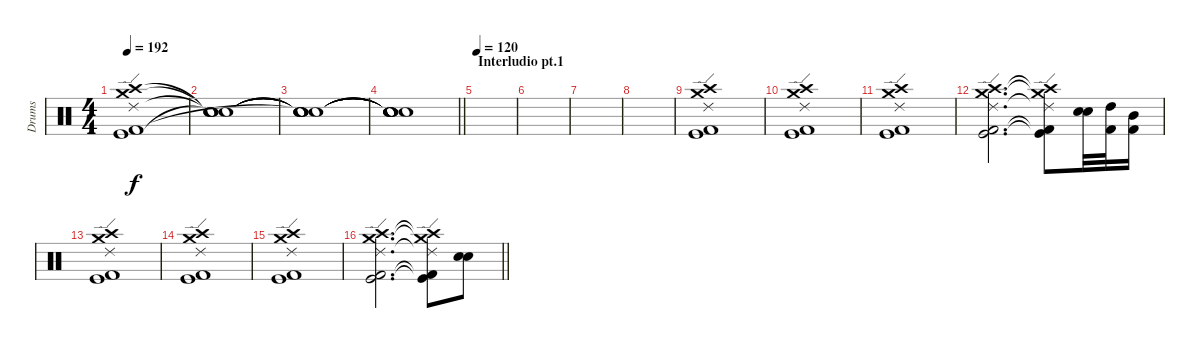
\track ("Drums" "Drums") {instrument percussion}
\staff {score}
\articulation defaults
\ts (4 4)
\tempo 192
\clef neutral
\ks c
("Crash medium (hit)" "Ride (edge) 2" "Crash high (hit)" "Kick (hit)" "Kick (hit) 2").1{dy f} |
("Snare (hit)"{t} "Snare (hit)"{t} "Snare (hit)"{t} "Snare (hit)"{t}).1 |
("Snare (hit)"{t} "Snare (hit)"{t} "Snare (hit)"{t} "Snare (hit)"{t} "Snare (hit)"{t}).1 |
\barLineRight lightlight
("Snare (hit)"{t} "Snare (hit)"{t} "Snare (hit)"{t} "Snare (hit)"{t} "Snare (hit)"{t}).1 |
\section ("" "Interludio pt.1")
\tempo 120
|
|
|
|
("Crash medium (hit)" "Ride (edge) 2" "Crash high (hit)" "Kick (hit)" "Kick (hit) 2").1 |
("Crash medium (hit)" "Ride (edge) 2" "Crash high (hit)" "Kick (hit)" "Kick (hit) 2").1 |
("Crash medium (hit)" "Ride (edge) 2" "Crash high (hit)" "Kick (hit)" "Kick (hit) 2").1 |
("Crash medium (hit)" "Ride (edge) 2" "Crash high (hit)" "Kick (hit)" "Kick (hit) 2").2{d} ("Crash medium (hit)"{t} "Ride (edge) 2"{t} "Crash high (hit)"{t} "Kick (hit)"{t} "Kick (hit) 2"{t}).8 ("Snare (hit) 2" "Electric Snare (hit)").32 ("High Tom (hit)" "Kick (hit) 2").32 ("Mid Tom (hit)" "Kick (hit) 2").16 |
("Crash medium (hit)" "Ride (edge) 2" "Crash high (hit)" "Kick (hit)" "Kick (hit) 2").1 |
("Crash medium (hit)" "Ride (edge) 2" "Crash high (hit)" "Kick (hit)" "Kick (hit) 2").1 |
("Crash medium (hit)" "Ride (edge) 2" "Crash high (hit)" "Kick (hit)" "Kick (hit) 2").1 |
\barLineRight lightlight
("Crash medium (hit)" "Ride (edge) 2" "Crash high (hit)" "Kick (hit)" "Kick (hit) 2").2{d} ("Crash medium (hit)"{t} "Ride (edge) 2"{t} "Crash high (hit)"{t} "Kick (hit)"{t} "Kick (hit) 2"{t}).8 ("Snare (hit) 2" "Electric Snare (hit)").8
